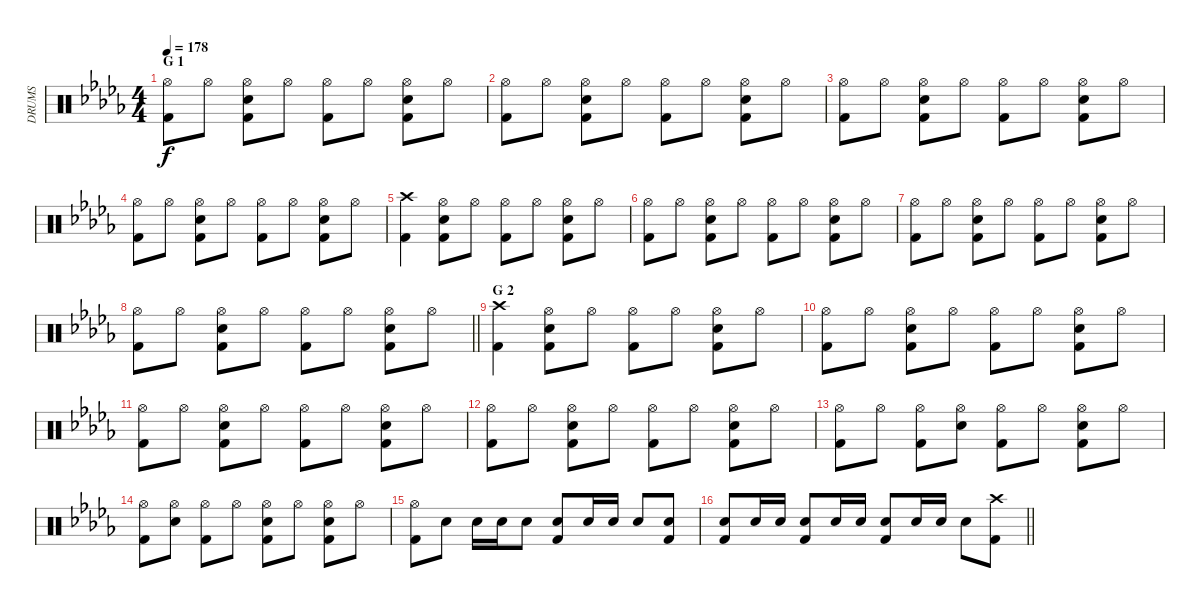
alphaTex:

\track ("DRUMS" "DRUMS") {instrument percussion}
\staff {score}
\articulation defaults
\ts (4 4)
\section ("" "G 1")
\tempo 178
\clef neutral
\ks db
("Hi-Hat (open)" "Kick (hit) 2").8{dy f} "Hi-Hat (open)".8 ("Hi-Hat (open)" "Kick (hit) 2" "Snare (hit) 2").8 "Hi-Hat (open)".8 ("Hi-Hat (open)" "Kick (hit) 2").8 "Hi-Hat (open)".8 ("Hi-Hat (open)" "Kick (hit) 2" "Snare (hit) 2").8 "Hi-Hat (open)".8 |
("Hi-Hat (open)" "Kick (hit) 2").8 "Hi-Hat (open)".8 ("Hi-Hat (open)" "Kick (hit) 2" "Snare (hit) 2").8 "Hi-Hat (open)".8 ("Hi-Hat (open)" "Kick (hit) 2").8 "Hi-Hat (open)".8 ("Hi-Hat (open)" "Kick (hit) 2" "Snare (hit) 2").8 "Hi-Hat (open)".8 |
("Hi-Hat (open)" "Kick (hit) 2").8 "Hi-Hat (open)".8 ("Hi-Hat (open)" "Kick (hit) 2" "Snare (hit) 2").8 "Hi-Hat (open)".8 ("Hi-Hat (open)" "Kick (hit) 2").8 "Hi-Hat (open)".8 ("Hi-Hat (open)" "Kick (hit) 2" "Snare (hit) 2").8 "Hi-Hat (open)".8 |
("Hi-Hat (open)" "Kick (hit) 2").8 "Hi-Hat (open)".8 ("Hi-Hat (open)" "Kick (hit) 2" "Snare (hit) 2").8 "Hi-Hat (open)".8 ("Hi-Hat (open)" "Kick (hit) 2").8 "Hi-Hat (open)".8 ("Hi-Hat (open)" "Kick (hit) 2" "Snare (hit) 2").8 "Hi-Hat (open)".8 |
("Crash high (hit)" "Kick (hit) 2").4 ("Hi-Hat (open)" "Kick (hit) 2" "Snare (hit) 2").8 "Hi-Hat (open)".8 ("Hi-Hat (open)" "Kick (hit) 2").8 "Hi-Hat (open)".8 ("Hi-Hat (open)" "Kick (hit) 2" "Snare (hit) 2").8 "Hi-Hat (open)".8 |
("Hi-Hat (open)" "Kick (hit) 2").8 "Hi-Hat (open)".8 ("Hi-Hat (open)" "Kick (hit) 2" "Snare (hit) 2").8 "Hi-Hat (open)".8 ("Hi-Hat (open)" "Kick (hit) 2").8 "Hi-Hat (open)".8 ("Hi-Hat (open)" "Kick (hit) 2" "Snare (hit) 2").8 "Hi-Hat (open)".8 |
("Hi-Hat (open)" "Kick (hit) 2").8 "Hi-Hat (open)".8 ("Hi-Hat (open)" "Kick (hit) 2" "Snare (hit) 2").8 "Hi-Hat (open)".8 ("Hi-Hat (open)" "Kick (hit) 2").8 "Hi-Hat (open)".8 ("Hi-Hat (open)" "Kick (hit) 2" "Snare (hit) 2").8 "Hi-Hat (open)".8 |
\barLineRight lightlight
("Hi-Hat (open)" "Kick (hit) 2").8 "Hi-Hat (open)".8 ("Hi-Hat (open)" "Kick (hit) 2" "Snare (hit) 2").8 "Hi-Hat (open)".8 ("Hi-Hat (open)" "Kick (hit) 2").8 "Hi-Hat (open)".8 ("Hi-Hat (open)" "Kick (hit) 2" "Snare (hit) 2").8 "Hi-Hat (open)".8 |
\section ("" "G 2")
("Crash high (hit)" "Kick (hit) 2").4 ("Hi-Hat (open)" "Kick (hit) 2" "Snare (hit) 2").8 "Hi-Hat (open)".8 ("Hi-Hat (open)" "Kick (hit) 2").8 "Hi-Hat (open)".8 ("Hi-Hat (open)" "Kick (hit) 2" "Snare (hit) 2").8 "Hi-Hat (open)".8 |
("Hi-Hat (open)" "Kick (hit) 2").8 "Hi-Hat (open)".8 ("Hi-Hat (open)" "Kick (hit) 2" "Snare (hit) 2").8 "Hi-Hat (open)".8 ("Hi-Hat (open)" "Kick (hit) 2").8 "Hi-Hat (open)".8 ("Hi-Hat (open)" "Kick (hit) 2" "Snare (hit) 2").8 "Hi-Hat (open)".8 |
("Hi-Hat (open)" "Kick (hit) 2").8 "Hi-Hat (open)".8 ("Hi-Hat (open)" "Kick (hit) 2" "Snare (hit) 2").8 "Hi-Hat (open)".8 ("Hi-Hat (open)" "Kick (hit) 2").8 "Hi-Hat (open)".8 ("Hi-Hat (open)" "Kick (hit) 2" "Snare (hit) 2").8 "Hi-Hat (open)".8 |
("Hi-Hat (open)" "Kick (hit) 2").8 "Hi-Hat (open)".8 ("Hi-Hat (open)" "Kick (hit) 2" "Snare (hit) 2").8 "Hi-Hat (open)".8 ("Hi-Hat (open)" "Kick (hit) 2").8 "Hi-Hat (open)".8 ("Hi-Hat (open)" "Kick (hit) 2" "Snare (hit) 2").8 "Hi-Hat (open)".8 |
("Hi-Hat (open)" "Kick (hit) 2").8 "Hi-Hat (open)".8 ("Hi-Hat (open)" "Kick (hit) 2").8 ("Hi-Hat (open)" "Snare (hit) 2").8 ("Hi-Hat (open)" "Kick (hit) 2").8 "Hi-Hat (open)".8 ("Hi-Hat (open)" "Kick (hit) 2" "Snare (hit) 2").8 "Hi-Hat (open)".8 |
("Hi-Hat (open)" "Kick (hit) 2").8 ("Hi-Hat (open)" "Snare (hit) 2").8 ("Hi-Hat (open)" "Kick (hit) 2").8 "Hi-Hat (open)".8 ("Hi-Hat (open)" "Kick (hit) 2" "Snare (hit) 2").8 "Hi-Hat (open)".8 ("Hi-Hat (open)" "Kick (hit) 2" "Snare (hit) 2").8 "Hi-Hat (open)".8 |
("Hi-Hat (open)" "Kick (hit) 2").8 "Snare (hit) 2".8 "Snare (hit) 2".16 "Snare (hit) 2".16 "Snare (hit) 2".8 ("Snare (hit) 2" "Kick (hit) 2").8 "Snare (hit) 2".16 "Snare (hit) 2".16 "Snare (hit) 2".8 ("Snare (hit) 2" "Kick (hit) 2").8 |
\barLineRight lightlight
("Snare (hit) 2" "Kick (hit) 2").8 "Snare (hit) 2".16 "Snare (hit) 2".16 ("Snare (hit) 2" "Kick (hit) 2").8 "Snare (hit) 2".16 "Snare (hit) 2".16 ("Snare (hit) 2" "Kick (hit) 2").8 "Snare (hit) 2".16 "Snare (hit) 2".16 "Snare (hit) 2".8 ("Crash high (hit)" "Kick (hit) 2").8
